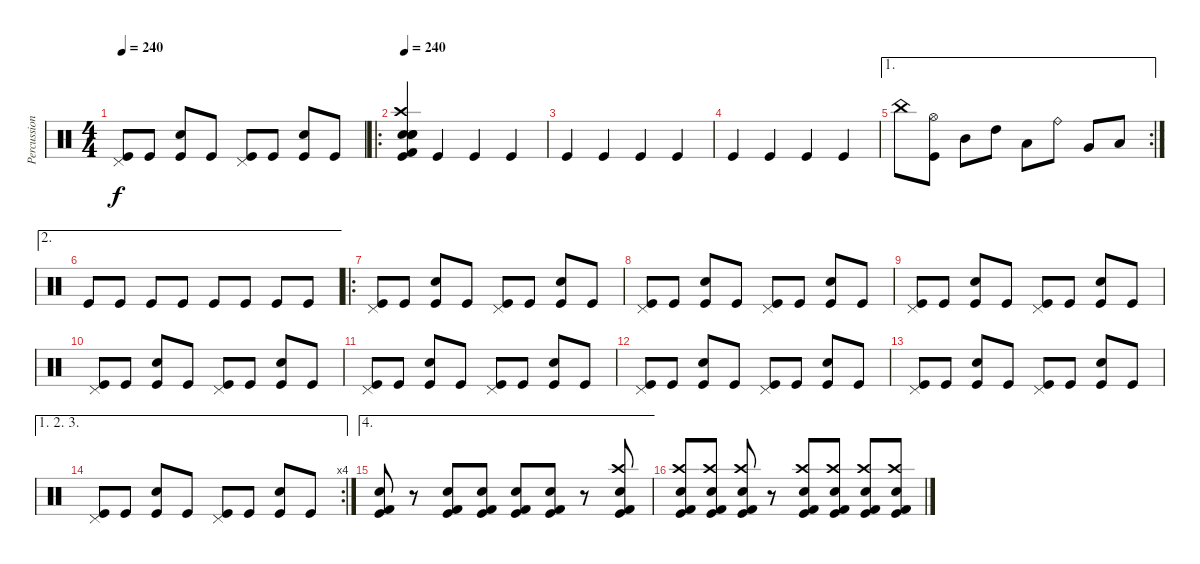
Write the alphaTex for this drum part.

\track ("Percussion" "Percussion") {instrument percussion}
\staff {score}
\articulation defaults
\ts (4 4)
\tempo 240
\clef neutral
\ks c
("Pedal Hi-Hat (hit)" "Kick (hit)").8{dy f} "Kick (hit)".8 ("Snare (hit) 2" "Kick (hit)").8 "Kick (hit)".8 ("Pedal Hi-Hat (hit)" "Kick (hit)").8 "Kick (hit)".8 ("Snare (hit) 2" "Kick (hit)").8 "Kick (hit)".8 |
\ro
\tempo 240
("Crash high (hit)" "Hand Clap (hit)" "Snare (hit) 2" "Kick (hit) 2" "Metronome (bell)" "Kick (hit)").4 "Kick (hit)".4 "Kick (hit)".4 "Kick (hit)".4 |
"Kick (hit)".4 "Kick (hit)".4 "Kick (hit)".4 "Kick (hit)".4 |
"Kick (hit)".4 "Kick (hit)".4 "Kick (hit)".4 "Kick (hit)".4 |
\ae 1
\rc 2 "China (hit)".8
("Hi-Hat (open)" "Kick (hit)").8 "Mid Tom (hit)".8 "High Tom (hit)".8 "Low Floor Tom (hit)".8 "Ride (bell)".8 "Very Low Tom (hit)".8 "Low Tom (hit)".8 |
\ae 2 "Kick (hit)".8 "Kick (hit)".8 "Kick (hit)".8 "Kick (hit)".8 "Kick (hit)".8 "Kick (hit)".8 "Kick (hit)".8 "Kick (hit)".8
|
\ro
("Pedal Hi-Hat (hit)" "Kick (hit)").8 "Kick (hit)".8 ("Snare (hit) 2" "Kick (hit)").8 "Kick (hit)".8 ("Pedal Hi-Hat (hit)" "Kick (hit)").8 "Kick (hit)".8 ("Snare (hit) 2" "Kick (hit)").8 "Kick (hit)".8 |
("Pedal Hi-Hat (hit)" "Kick (hit)").8 "Kick (hit)".8 ("Snare (hit) 2" "Kick (hit)").8 "Kick (hit)".8 ("Pedal Hi-Hat (hit)" "Kick (hit)").8 "Kick (hit)".8 ("Snare (hit) 2" "Kick (hit)").8 "Kick (hit)".8 |
("Pedal Hi-Hat (hit)" "Kick (hit)").8 "Kick (hit)".8 ("Snare (hit) 2" "Kick (hit)").8 "Kick (hit)".8 ("Pedal Hi-Hat (hit)" "Kick (hit)").8 "Kick (hit)".8 ("Snare (hit) 2" "Kick (hit)").8 "Kick (hit)".8 |
("Pedal Hi-Hat (hit)" "Kick (hit)").8 "Kick (hit)".8 ("Snare (hit) 2" "Kick (hit)").8 "Kick (hit)".8 ("Pedal Hi-Hat (hit)" "Kick (hit)").8 "Kick (hit)".8 ("Snare (hit) 2" "Kick (hit)").8 "Kick (hit)".8 |
("Pedal Hi-Hat (hit)" "Kick (hit)").8 "Kick (hit)".8 ("Snare (hit) 2" "Kick (hit)").8 "Kick (hit)".8 ("Pedal Hi-Hat (hit)" "Kick (hit)").8 "Kick (hit)".8 ("Snare (hit) 2" "Kick (hit)").8 "Kick (hit)".8 |
("Pedal Hi-Hat (hit)" "Kick (hit)").8 "Kick (hit)".8 ("Snare (hit) 2" "Kick (hit)").8 "Kick (hit)".8 ("Pedal Hi-Hat (hit)" "Kick (hit)").8 "Kick (hit)".8 ("Snare (hit) 2" "Kick (hit)").8 "Kick (hit)".8 |
("Pedal Hi-Hat (hit)" "Kick (hit)").8 "Kick (hit)".8 ("Snare (hit) 2" "Kick (hit)").8 "Kick (hit)".8 ("Pedal Hi-Hat (hit)" "Kick (hit)").8 "Kick (hit)".8 ("Snare (hit) 2" "Kick (hit)").8 "Kick (hit)".8 |
\ae (1 2 3)
\rc 4
("Pedal Hi-Hat (hit)" "Kick (hit)").8 "Kick (hit)".8 ("Snare (hit) 2" "Kick (hit)").8 "Kick (hit)".8 ("Pedal Hi-Hat (hit)" "Kick (hit)").8 "Kick (hit)".8 ("Snare (hit) 2" "Kick (hit)").8 "Kick (hit)".8 |
\ae 4
("Snare (hit) 2" "Kick (hit) 2" "Kick (hit)").8 r.8 ("Snare (hit) 2" "Kick (hit) 2" "Kick (hit)").8 ("Snare (hit) 2" "Kick (hit) 2" "Kick (hit)").8 ("Snare (hit) 2" "Kick (hit) 2" "Kick (hit)").8 ("Snare (hit) 2" "Kick (hit) 2" "Kick (hit)").8 r.8 ("Crash high (hit)" "Snare (hit) 2" "Kick (hit) 2" "Kick (hit)").8 |
("Crash high (hit)" "Snare (hit) 2" "Kick (hit) 2" "Kick (hit)").8 ("Crash high (hit)" "Snare (hit) 2" "Kick (hit) 2" "Kick (hit)").8 ("Crash high (hit)" "Snare (hit) 2" "Kick (hit) 2" "Kick (hit)").8 r.8 ("Crash high (hit)" "Snare (hit) 2" "Kick (hit) 2" "Kick (hit)").8 ("Crash high (hit)" "Snare (hit) 2" "Kick (hit) 2" "Kick (hit)").8 ("Crash high (hit)" "Snare (hit) 2" "Kick (hit) 2" "Kick (hit)").8 ("Crash high (hit)" "Snare (hit) 2" "Kick (hit) 2" "Kick (hit)").8
